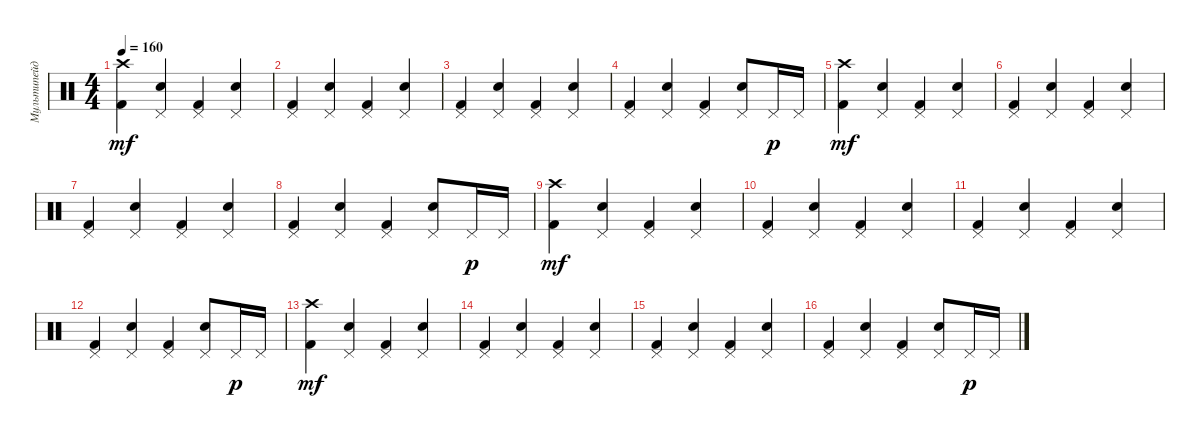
\track ("Мультипейджер" "Мультипейд") {instrument percussion}
\staff {score}
\articulation defaults
\ts (4 4)
\tempo 160
\clef neutral
\ks c
("Crash high (hit)" "Kick (hit) 2").4{dy mf} ("Pedal Hi-Hat (hit)" "Snare (hit) 2").4 ("Pedal Hi-Hat (hit)" "Kick (hit) 2").4 ("Pedal Hi-Hat (hit)" "Snare (hit) 2").4 |
("Pedal Hi-Hat (hit)" "Kick (hit) 2").4 ("Pedal Hi-Hat (hit)" "Snare (hit) 2").4 ("Pedal Hi-Hat (hit)" "Kick (hit) 2").4 ("Pedal Hi-Hat (hit)" "Snare (hit) 2").4 |
("Pedal Hi-Hat (hit)" "Kick (hit) 2").4 ("Pedal Hi-Hat (hit)" "Snare (hit) 2").4 ("Pedal Hi-Hat (hit)" "Kick (hit) 2").4 ("Pedal Hi-Hat (hit)" "Snare (hit) 2").4 |
("Pedal Hi-Hat (hit)" "Kick (hit) 2").4 ("Pedal Hi-Hat (hit)" "Snare (hit) 2").4 ("Pedal Hi-Hat (hit)" "Kick (hit) 2").4 ("Pedal Hi-Hat (hit)" "Snare (hit) 2").8 "Pedal Hi-Hat (hit)".16{dy p} "Pedal Hi-Hat (hit)".16 |
("Crash high (hit)" "Kick (hit) 2").4{dy mf} ("Pedal Hi-Hat (hit)" "Snare (hit) 2").4 ("Pedal Hi-Hat (hit)" "Kick (hit) 2").4 ("Pedal Hi-Hat (hit)" "Snare (hit) 2").4 |
("Pedal Hi-Hat (hit)" "Kick (hit) 2").4 ("Pedal Hi-Hat (hit)" "Snare (hit) 2").4 ("Pedal Hi-Hat (hit)" "Kick (hit) 2").4 ("Pedal Hi-Hat (hit)" "Snare (hit) 2").4 |
("Pedal Hi-Hat (hit)" "Kick (hit) 2").4 ("Pedal Hi-Hat (hit)" "Snare (hit) 2").4 ("Pedal Hi-Hat (hit)" "Kick (hit) 2").4 ("Pedal Hi-Hat (hit)" "Snare (hit) 2").4 |
("Pedal Hi-Hat (hit)" "Kick (hit) 2").4 ("Pedal Hi-Hat (hit)" "Snare (hit) 2").4 ("Pedal Hi-Hat (hit)" "Kick (hit) 2").4 ("Pedal Hi-Hat (hit)" "Snare (hit) 2").8 "Pedal Hi-Hat (hit)".16{dy p} "Pedal Hi-Hat (hit)".16 |
("Crash high (hit)" "Kick (hit) 2").4{dy mf} ("Pedal Hi-Hat (hit)" "Snare (hit) 2").4 ("Pedal Hi-Hat (hit)" "Kick (hit) 2").4 ("Pedal Hi-Hat (hit)" "Snare (hit) 2").4 |
("Pedal Hi-Hat (hit)" "Kick (hit) 2").4 ("Pedal Hi-Hat (hit)" "Snare (hit) 2").4 ("Pedal Hi-Hat (hit)" "Kick (hit) 2").4 ("Pedal Hi-Hat (hit)" "Snare (hit) 2").4 |
("Pedal Hi-Hat (hit)" "Kick (hit) 2").4 ("Pedal Hi-Hat (hit)" "Snare (hit) 2").4 ("Pedal Hi-Hat (hit)" "Kick (hit) 2").4 ("Pedal Hi-Hat (hit)" "Snare (hit) 2").4 |
("Pedal Hi-Hat (hit)" "Kick (hit) 2").4 ("Pedal Hi-Hat (hit)" "Snare (hit) 2").4 ("Pedal Hi-Hat (hit)" "Kick (hit) 2").4 ("Pedal Hi-Hat (hit)" "Snare (hit) 2").8 "Pedal Hi-Hat (hit)".16{dy p} "Pedal Hi-Hat (hit)".16 |
("Crash high (hit)" "Kick (hit) 2").4{dy mf} ("Pedal Hi-Hat (hit)" "Snare (hit) 2").4 ("Pedal Hi-Hat (hit)" "Kick (hit) 2").4 ("Pedal Hi-Hat (hit)" "Snare (hit) 2").4 |
("Pedal Hi-Hat (hit)" "Kick (hit) 2").4 ("Pedal Hi-Hat (hit)" "Snare (hit) 2").4 ("Pedal Hi-Hat (hit)" "Kick (hit) 2").4 ("Pedal Hi-Hat (hit)" "Snare (hit) 2").4 |
("Pedal Hi-Hat (hit)" "Kick (hit) 2").4 ("Pedal Hi-Hat (hit)" "Snare (hit) 2").4 ("Pedal Hi-Hat (hit)" "Kick (hit) 2").4 ("Pedal Hi-Hat (hit)" "Snare (hit) 2").4 |
("Pedal Hi-Hat (hit)" "Kick (hit) 2").4 ("Pedal Hi-Hat (hit)" "Snare (hit) 2").4 ("Pedal Hi-Hat (hit)" "Kick (hit) 2").4 ("Pedal Hi-Hat (hit)" "Snare (hit) 2").8 "Pedal Hi-Hat (hit)".16{dy p} "Pedal Hi-Hat (hit)".16
